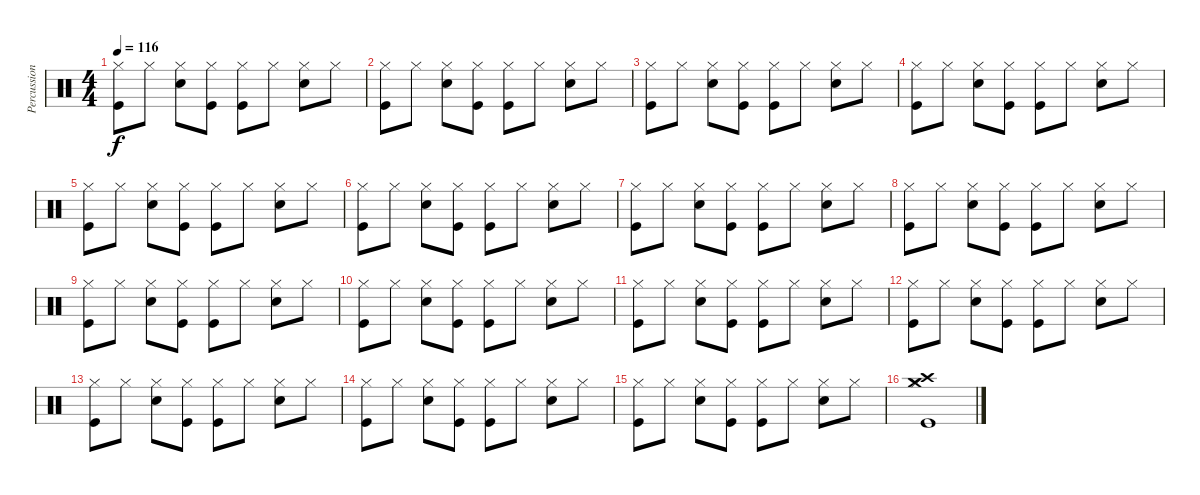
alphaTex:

\track ("Percussion" "Percussion") {instrument percussion}
\staff {score}
\articulation defaults
\ts (4 4)
\tempo 116
\clef neutral
\ks c
("Kick (hit)" "Hi-Hat (closed)").8{dy f} "Hi-Hat (closed)".8 ("Snare (hit) 2" "Hi-Hat (closed)").8 ("Kick (hit)" "Hi-Hat (closed)").8 ("Kick (hit)" "Hi-Hat (closed)").8 "Hi-Hat (closed)".8 ("Snare (hit) 2" "Hi-Hat (closed)").8 "Hi-Hat (closed)".8 |
("Kick (hit)" "Hi-Hat (closed)").8 "Hi-Hat (closed)".8 ("Snare (hit) 2" "Hi-Hat (closed)").8 ("Kick (hit)" "Hi-Hat (closed)").8 ("Kick (hit)" "Hi-Hat (closed)").8 "Hi-Hat (closed)".8 ("Snare (hit) 2" "Hi-Hat (closed)").8 "Hi-Hat (closed)".8 |
("Kick (hit)" "Hi-Hat (closed)").8 "Hi-Hat (closed)".8 ("Snare (hit) 2" "Hi-Hat (closed)").8 ("Kick (hit)" "Hi-Hat (closed)").8 ("Kick (hit)" "Hi-Hat (closed)").8 "Hi-Hat (closed)".8 ("Snare (hit) 2" "Hi-Hat (closed)").8 "Hi-Hat (closed)".8 |
("Kick (hit)" "Hi-Hat (closed)").8 "Hi-Hat (closed)".8 ("Snare (hit) 2" "Hi-Hat (closed)").8 ("Kick (hit)" "Hi-Hat (closed)").8 ("Kick (hit)" "Hi-Hat (closed)").8 "Hi-Hat (closed)".8 ("Snare (hit) 2" "Hi-Hat (closed)").8 "Hi-Hat (closed)".8 |
("Kick (hit)" "Hi-Hat (closed)").8 "Hi-Hat (closed)".8 ("Snare (hit) 2" "Hi-Hat (closed)").8 ("Kick (hit)" "Hi-Hat (closed)").8 ("Kick (hit)" "Hi-Hat (closed)").8 "Hi-Hat (closed)".8 ("Snare (hit) 2" "Hi-Hat (closed)").8 "Hi-Hat (closed)".8 |
("Kick (hit)" "Hi-Hat (closed)").8 "Hi-Hat (closed)".8 ("Snare (hit) 2" "Hi-Hat (closed)").8 ("Kick (hit)" "Hi-Hat (closed)").8 ("Kick (hit)" "Hi-Hat (closed)").8 "Hi-Hat (closed)".8 ("Snare (hit) 2" "Hi-Hat (closed)").8 "Hi-Hat (closed)".8 |
("Kick (hit)" "Hi-Hat (closed)").8 "Hi-Hat (closed)".8 ("Snare (hit) 2" "Hi-Hat (closed)").8 ("Kick (hit)" "Hi-Hat (closed)").8 ("Kick (hit)" "Hi-Hat (closed)").8 "Hi-Hat (closed)".8 ("Snare (hit) 2" "Hi-Hat (closed)").8 "Hi-Hat (closed)".8 |
("Kick (hit)" "Hi-Hat (closed)").8 "Hi-Hat (closed)".8 ("Snare (hit) 2" "Hi-Hat (closed)").8 ("Kick (hit)" "Hi-Hat (closed)").8 ("Kick (hit)" "Hi-Hat (closed)").8 "Hi-Hat (closed)".8 ("Snare (hit) 2" "Hi-Hat (closed)").8 "Hi-Hat (closed)".8 |
("Kick (hit)" "Hi-Hat (closed)").8 "Hi-Hat (closed)".8 ("Snare (hit) 2" "Hi-Hat (closed)").8 ("Kick (hit)" "Hi-Hat (closed)").8 ("Kick (hit)" "Hi-Hat (closed)").8 "Hi-Hat (closed)".8 ("Snare (hit) 2" "Hi-Hat (closed)").8 "Hi-Hat (closed)".8 |
("Kick (hit)" "Hi-Hat (closed)").8 "Hi-Hat (closed)".8 ("Snare (hit) 2" "Hi-Hat (closed)").8 ("Kick (hit)" "Hi-Hat (closed)").8 ("Kick (hit)" "Hi-Hat (closed)").8 "Hi-Hat (closed)".8 ("Snare (hit) 2" "Hi-Hat (closed)").8 "Hi-Hat (closed)".8 |
("Kick (hit)" "Hi-Hat (closed)").8 "Hi-Hat (closed)".8 ("Snare (hit) 2" "Hi-Hat (closed)").8 ("Kick (hit)" "Hi-Hat (closed)").8 ("Kick (hit)" "Hi-Hat (closed)").8 "Hi-Hat (closed)".8 ("Snare (hit) 2" "Hi-Hat (closed)").8 "Hi-Hat (closed)".8 |
("Kick (hit)" "Hi-Hat (closed)").8 "Hi-Hat (closed)".8 ("Snare (hit) 2" "Hi-Hat (closed)").8 ("Kick (hit)" "Hi-Hat (closed)").8 ("Kick (hit)" "Hi-Hat (closed)").8 "Hi-Hat (closed)".8 ("Snare (hit) 2" "Hi-Hat (closed)").8 "Hi-Hat (closed)".8 |
("Kick (hit)" "Hi-Hat (closed)").8 "Hi-Hat (closed)".8 ("Snare (hit) 2" "Hi-Hat (closed)").8 ("Kick (hit)" "Hi-Hat (closed)").8 ("Kick (hit)" "Hi-Hat (closed)").8 "Hi-Hat (closed)".8 ("Snare (hit) 2" "Hi-Hat (closed)").8 "Hi-Hat (closed)".8 |
("Kick (hit)" "Hi-Hat (closed)").8 "Hi-Hat (closed)".8 ("Snare (hit) 2" "Hi-Hat (closed)").8 ("Kick (hit)" "Hi-Hat (closed)").8 ("Kick (hit)" "Hi-Hat (closed)").8 "Hi-Hat (closed)".8 ("Snare (hit) 2" "Hi-Hat (closed)").8 "Hi-Hat (closed)".8 |
("Kick (hit)" "Hi-Hat (closed)").8 "Hi-Hat (closed)".8 ("Snare (hit) 2" "Hi-Hat (closed)").8 ("Kick (hit)" "Hi-Hat (closed)").8 ("Kick (hit)" "Hi-Hat (closed)").8 "Hi-Hat (closed)".8 ("Snare (hit) 2" "Hi-Hat (closed)").8 "Hi-Hat (closed)".8 |
("Crash medium (hit)" "Kick (hit)" "Crash high (hit)" "Hi-Hat (closed)").1
